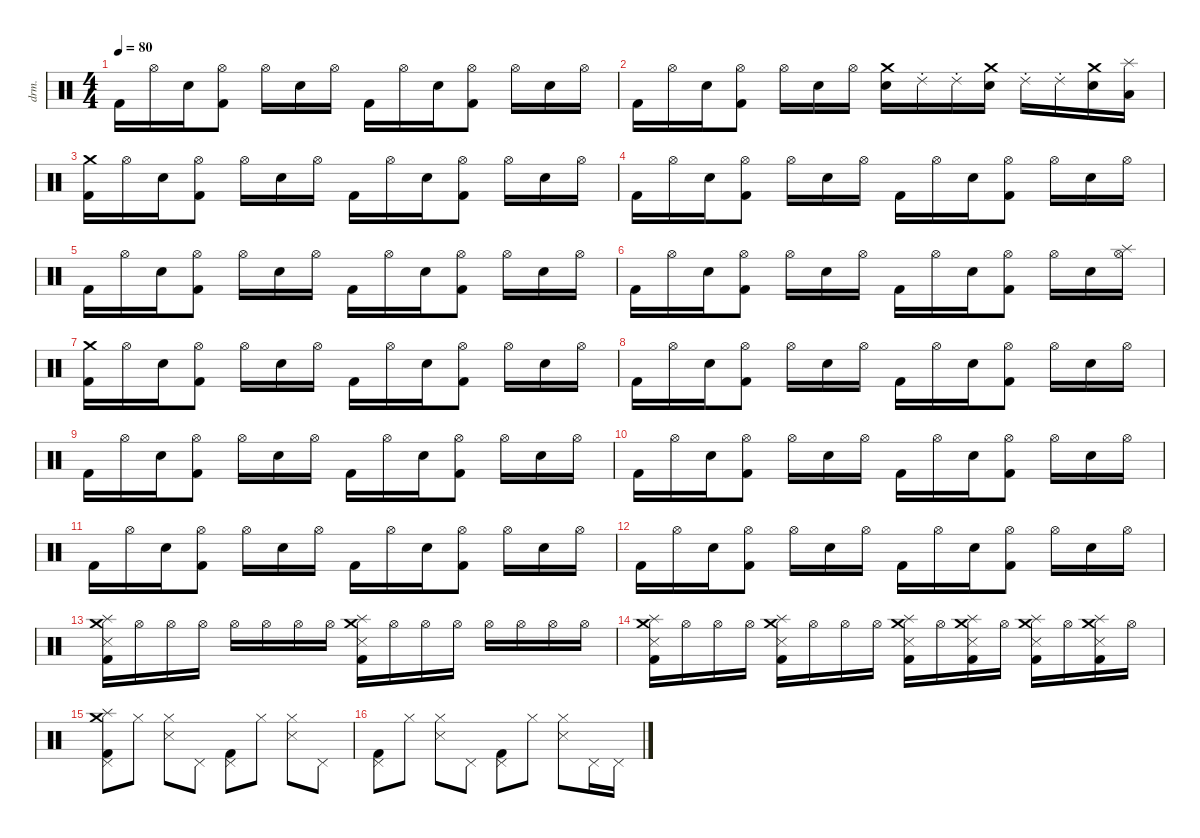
\defaultSystemsLayout 4
\hideDynamics
\bracketExtendMode nobrackets
\otherSystemsTrackNameOrientation horizontal
\track ("Percussions / Batterie" "drm.") {instrument percussion}
\staff {score}
\articulation defaults
\ts (4 4)
\tempo 80
\clef neutral
\ks c "Kick (hit) 2".16{dy f beam Down} "Hi-Hat (open)".16{beam Down} "Snare (hit) 2".16{beam Down}
("Hi-Hat (open)" "Kick (hit) 2").8{beam Down} "Hi-Hat (open)".16{beam Down} "Snare (hit) 2".16{beam Down} "Hi-Hat (open)".16{beam Down} "Kick (hit) 2".16{beam Down} "Hi-Hat (open)".16{beam Down} "Snare (hit) 2".16{beam Down} ("Hi-Hat (open)" "Kick (hit) 2").8{beam Down} "Hi-Hat (open)".16{beam Down} "Snare (hit) 2".16{beam Down} "Hi-Hat (open)".16{beam Down} |
"Kick (hit) 2".16{beam Down} "Hi-Hat (open)".16{beam Down} "Snare (hit) 2".16{beam Down} ("Hi-Hat (open)" "Kick (hit) 2").8{beam Down} "Hi-Hat (open)".16{beam Down} "Snare (hit) 2".16{beam Down} "Hi-Hat (open)".16{beam Down} ("Crash medium (hit)" "Snare (hit) 2").16{beam Down} "Ride (choke) 2".16{beam Down} "Ride (choke) 2".16{beam Down} ("Crash medium (hit)" "Snare (hit) 2").16{beam Down} "Ride (choke) 2".16{beam Down} "Ride (choke) 2".16{beam Down} ("Crash medium (hit)" "Snare (hit) 2").16{beam Down} ("Splash (hit)" "Low Floor Tom (hit)").16{beam Down} |
("Crash medium (hit)" "Kick (hit) 2").16{beam Down} "Hi-Hat (open)".16{beam Down} "Snare (hit) 2".16{beam Down} ("Hi-Hat (open)" "Kick (hit) 2").8{beam Down} "Hi-Hat (open)".16{beam Down} "Snare (hit) 2".16{beam Down} "Hi-Hat (open)".16{beam Down} "Kick (hit) 2".16{beam Down} "Hi-Hat (open)".16{beam Down} "Snare (hit) 2".16{beam Down} ("Hi-Hat (open)" "Kick (hit) 2").8{beam Down} "Hi-Hat (open)".16{beam Down} "Snare (hit) 2".16{beam Down} "Hi-Hat (open)".16{beam Down} |
"Kick (hit) 2".16{beam Down} "Hi-Hat (open)".16{beam Down} "Snare (hit) 2".16{beam Down} ("Hi-Hat (open)" "Kick (hit) 2").8{beam Down} "Hi-Hat (open)".16{beam Down} "Snare (hit) 2".16{beam Down} "Hi-Hat (open)".16{beam Down} "Kick (hit) 2".16{beam Down} "Hi-Hat (open)".16{beam Down} "Snare (hit) 2".16{beam Down} ("Hi-Hat (open)" "Kick (hit) 2").8{beam Down} "Hi-Hat (open)".16{beam Down} "Snare (hit) 2".16{beam Down} "Hi-Hat (open)".16{beam Down} |
"Kick (hit) 2".16{beam Down} "Hi-Hat (open)".16{beam Down} "Snare (hit) 2".16{beam Down} ("Hi-Hat (open)" "Kick (hit) 2").8{beam Down} "Hi-Hat (open)".16{beam Down} "Snare (hit) 2".16{beam Down} "Hi-Hat (open)".16{beam Down} "Kick (hit) 2".16{beam Down} "Hi-Hat (open)".16{beam Down} "Snare (hit) 2".16{beam Down} ("Hi-Hat (open)" "Kick (hit) 2").8{beam Down} "Hi-Hat (open)".16{beam Down} "Snare (hit) 2".16{beam Down} "Hi-Hat (open)".16{beam Down} |
"Kick (hit) 2".16{beam Down} "Hi-Hat (open)".16{beam Down} "Snare (hit) 2".16{beam Down} ("Hi-Hat (open)" "Kick (hit) 2").8{beam Down} "Hi-Hat (open)".16{beam Down} "Snare (hit) 2".16{beam Down} "Hi-Hat (open)".16{beam Down} "Kick (hit) 2".16{beam Down} "Hi-Hat (open)".16{beam Down} "Snare (hit) 2".16{beam Down} ("Hi-Hat (open)" "Kick (hit) 2").8{beam Down} "Hi-Hat (open)".16{beam Down} "Snare (hit) 2".16{beam Down} ("Splash (hit)" "Hi-Hat (open)").16{beam Down} |
("Crash medium (hit)" "Kick (hit) 2").16{beam Down} "Hi-Hat (open)".16{beam Down} "Snare (hit) 2".16{beam Down} ("Hi-Hat (open)" "Kick (hit) 2").8{beam Down} "Hi-Hat (open)".16{beam Down} "Snare (hit) 2".16{beam Down} "Hi-Hat (open)".16{beam Down} "Kick (hit) 2".16{beam Down} "Hi-Hat (open)".16{beam Down} "Snare (hit) 2".16{beam Down} ("Hi-Hat (open)" "Kick (hit) 2").8{beam Down} "Hi-Hat (open)".16{beam Down} "Snare (hit) 2".16{beam Down} "Hi-Hat (open)".16{beam Down} |
"Kick (hit) 2".16{beam Down} "Hi-Hat (open)".16{beam Down} "Snare (hit) 2".16{beam Down} ("Hi-Hat (open)" "Kick (hit) 2").8{beam Down} "Hi-Hat (open)".16{beam Down} "Snare (hit) 2".16{beam Down} "Hi-Hat (open)".16{beam Down} "Kick (hit) 2".16{beam Down} "Hi-Hat (open)".16{beam Down} "Snare (hit) 2".16{beam Down} ("Hi-Hat (open)" "Kick (hit) 2").8{beam Down} "Hi-Hat (open)".16{beam Down} "Snare (hit) 2".16{beam Down} "Hi-Hat (open)".16{beam Down} |
"Kick (hit) 2".16{beam Down} "Hi-Hat (open)".16{beam Down} "Snare (hit) 2".16{beam Down} ("Hi-Hat (open)" "Kick (hit) 2").8{beam Down} "Hi-Hat (open)".16{beam Down} "Snare (hit) 2".16{beam Down} "Hi-Hat (open)".16{beam Down} "Kick (hit) 2".16{beam Down} "Hi-Hat (open)".16{beam Down} "Snare (hit) 2".16{beam Down} ("Hi-Hat (open)" "Kick (hit) 2").8{beam Down} "Hi-Hat (open)".16{beam Down} "Snare (hit) 2".16{beam Down} "Hi-Hat (open)".16{beam Down} |
"Kick (hit) 2".16{beam Down} "Hi-Hat (open)".16{beam Down} "Snare (hit) 2".16{beam Down} ("Hi-Hat (open)" "Kick (hit) 2").8{beam Down} "Hi-Hat (open)".16{beam Down} "Snare (hit) 2".16{beam Down} "Hi-Hat (open)".16{beam Down} "Kick (hit) 2".16{beam Down} "Hi-Hat (open)".16{beam Down} "Snare (hit) 2".16{beam Down} ("Hi-Hat (open)" "Kick (hit) 2").8{beam Down} "Hi-Hat (open)".16{beam Down} "Snare (hit) 2".16{beam Down} "Hi-Hat (open)".16{beam Down} |
"Kick (hit) 2".16{beam Down} "Hi-Hat (open)".16{beam Down} "Snare (hit) 2".16{beam Down} ("Hi-Hat (open)" "Kick (hit) 2").8{beam Down} "Hi-Hat (open)".16{beam Down} "Snare (hit) 2".16{beam Down} "Hi-Hat (open)".16{beam Down} "Kick (hit) 2".16{beam Down} "Hi-Hat (open)".16{beam Down} "Snare (hit) 2".16{beam Down} ("Hi-Hat (open)" "Kick (hit) 2").8{beam Down} "Hi-Hat (open)".16{beam Down} "Snare (hit) 2".16{beam Down} "Hi-Hat (open)".16{beam Down} |
"Kick (hit) 2".16{beam Down} "Hi-Hat (open)".16{beam Down} "Snare (hit) 2".16{beam Down} ("Hi-Hat (open)" "Kick (hit) 2").8{beam Down} "Hi-Hat (open)".16{beam Down} "Snare (hit) 2".16{beam Down} "Hi-Hat (open)".16{beam Down} "Kick (hit) 2".16{beam Down} "Hi-Hat (open)".16{beam Down} "Snare (hit) 2".16{beam Down} ("Hi-Hat (open)" "Kick (hit) 2").8{beam Down} "Hi-Hat (open)".16{beam Down} "Snare (hit) 2".16{beam Down} "Hi-Hat (open)".16{beam Down} |
("Crash medium (hit)" "Splash (hit)" "Kick (hit) 2" "Metronome (hit)").16{beam Down} "Hi-Hat (open)".16{beam Down} "Hi-Hat (open)".16{beam Down} "Hi-Hat (open)".16{beam Down} "Hi-Hat (open)".16{beam Down} "Hi-Hat (open)".16{beam Down} "Hi-Hat (open)".16{beam Down} "Hi-Hat (open)".16{beam Down} ("Crash medium (hit)" "Splash (hit)" "Kick (hit) 2" "Metronome (hit)").16{beam Down} "Hi-Hat (open)".16{beam Down} "Hi-Hat (open)".16{beam Down} "Hi-Hat (open)".16{beam Down} "Hi-Hat (open)".16{beam Down} "Hi-Hat (open)".16{beam Down} "Hi-Hat (open)".16{beam Down} "Hi-Hat (open)".16{beam Down} |
("Crash medium (hit)" "Splash (hit)" "Kick (hit) 2" "Metronome (hit)").16{beam Down} "Hi-Hat (open)".16{beam Down} "Hi-Hat (open)".16{beam Down} "Hi-Hat (open)".16{beam Down} ("Crash medium (hit)" "Splash (hit)" "Kick (hit) 2" "Metronome (hit)").16{beam Down} "Hi-Hat (open)".16{beam Down} "Hi-Hat (open)".16{beam Down} "Hi-Hat (open)".16{beam Down} ("Crash medium (hit)" "Splash (hit)" "Kick (hit) 2" "Metronome (hit)").16{dy ff beam Down} "Hi-Hat (open)".16{dy f beam Down} ("Crash medium (hit)" "Splash (hit)" "Kick (hit) 2" "Metronome (hit)").16{dy ff beam Down} "Hi-Hat (open)".16{dy f beam Down} ("Crash medium (hit)" "Splash (hit)" "Kick (hit) 2" "Metronome (hit)").16{dy fff beam Down} "Hi-Hat (open)".16{dy f beam Down} ("Crash medium (hit)" "Splash (hit)" "Kick (hit) 2" "Metronome (hit)").16{dy fff beam Down} "Hi-Hat (open)".16{dy f beam Down} |
("Crash medium (hit)" "Splash (hit)" "Pedal Hi-Hat (hit)" "Kick (hit) 2").8{dy fff beam Down} "Hi-Hat (closed)".8{dy f beam Down} ("Hi-Hat (closed)" "Snare (side stick) 3").8{beam Down} "Pedal Hi-Hat (hit)".8{beam Down} ("Pedal Hi-Hat (hit)" "Kick (hit) 2").8{beam Down} "Hi-Hat (closed)".8{beam Down} ("Hi-Hat (closed)" "Snare (side stick) 3").8{beam Down} "Pedal Hi-Hat (hit)".8{beam Down} |
("Pedal Hi-Hat (hit)" "Kick (hit) 2").8{beam Down} "Hi-Hat (closed)".8{beam Down} ("Hi-Hat (closed)" "Snare (side stick) 3").8{beam Down} "Pedal Hi-Hat (hit)".8{beam Down} ("Pedal Hi-Hat (hit)" "Kick (hit) 2").8{beam Down} "Hi-Hat (closed)".8{beam Down} ("Hi-Hat (closed)" "Snare (side stick) 3").8{beam Down} "Pedal Hi-Hat (hit)".16{beam Down} "Pedal Hi-Hat (hit)".16{beam Down}
